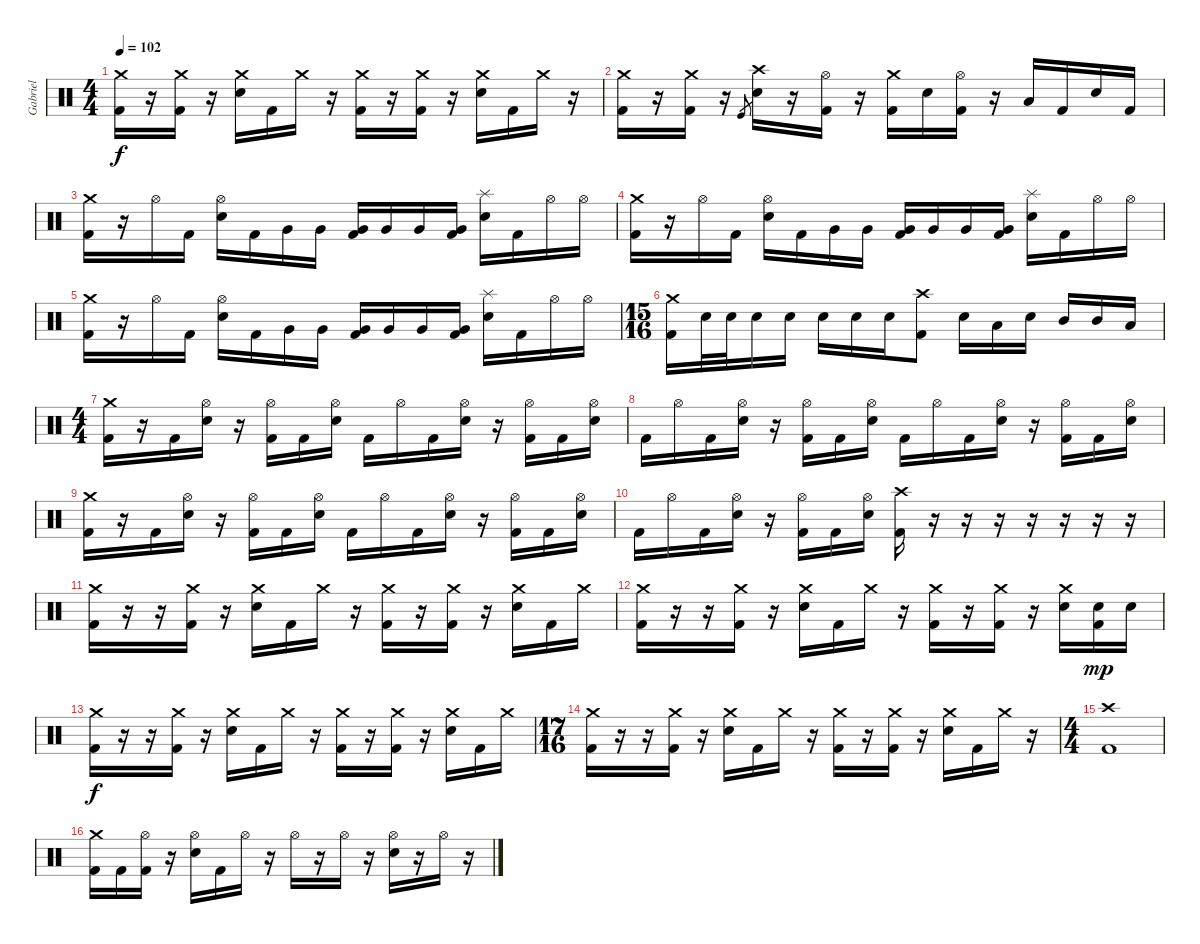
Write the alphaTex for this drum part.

\track ("Gabriel" "Gabriel") {instrument percussion}
\staff {score}
\articulation defaults
\ts (4 4)
\tempo 102
\clef neutral
\ks c
("Crash medium (hit)" "Kick (hit) 2").16{dy f} r.16 ("Crash medium (hit)" "Kick (hit) 2").16 r.16 ("Crash medium (hit)" "Electric Snare (hit)").16 "Kick (hit) 2".16 "Crash medium (hit)".16 r.16 ("Crash medium (hit)" "Kick (hit) 2").16 r.16 ("Crash medium (hit)" "Kick (hit) 2").16 r.16 ("Crash medium (hit)" "Electric Snare (hit)").16 "Kick (hit) 2".16 "Crash medium (hit)".16 r.16 |
("Crash medium (hit)" "Kick (hit) 2").16 r.16 ("Crash medium (hit)" "Kick (hit) 2").16 r.16 "Kick (hit)".8{gr} ("Crash high (hit)" "Electric Snare (hit)").16 r.16 ("Hi-Hat (open)" "Kick (hit) 2").16 r.16 ("Crash medium (hit)" "Kick (hit) 2").16 "Electric Snare (hit)".16 ("Hi-Hat (open)" "Kick (hit) 2").16 r.16 "Low Tom (hit)".16 "Kick (hit) 2".16 "Electric Snare (hit)".16 "Kick (hit) 2".16 |
("Crash medium (hit)" "Kick (hit) 2").16 r.16 "Hi-Hat (open)".16 "Kick (hit) 2".16 ("Hi-Hat (open)" "Electric Snare (hit)").16 "Kick (hit) 2".16 "Very Low Tom (hit)".16 "Very Low Tom (hit)".16 ("Very Low Tom (hit)" "Kick (hit) 2").16 "Very Low Tom (hit)".16 "Very Low Tom (hit)".16 ("Very Low Tom (hit)" "Kick (hit) 2").16 ("Splash (hit)" "Electric Snare (hit)").16 "Kick (hit) 2".16 "Hi-Hat (open)".16 "Hi-Hat (open)".16 |
("Crash medium (hit)" "Kick (hit) 2").16 r.16 "Hi-Hat (open)".16 "Kick (hit) 2".16 ("Hi-Hat (open)" "Electric Snare (hit)").16 "Kick (hit) 2".16 "Very Low Tom (hit)".16 "Very Low Tom (hit)".16 ("Very Low Tom (hit)" "Kick (hit) 2").16 "Very Low Tom (hit)".16 "Very Low Tom (hit)".16 ("Very Low Tom (hit)" "Kick (hit) 2").16 ("Splash (hit)" "Electric Snare (hit)").16 "Kick (hit) 2".16 "Hi-Hat (open)".16 "Hi-Hat (open)".16 |
("Crash medium (hit)" "Kick (hit) 2").16 r.16 "Hi-Hat (open)".16 "Kick (hit) 2".16 ("Hi-Hat (open)" "Electric Snare (hit)").16 "Kick (hit) 2".16 "Very Low Tom (hit)".16 "Very Low Tom (hit)".16 ("Very Low Tom (hit)" "Kick (hit) 2").16 "Very Low Tom (hit)".16 "Very Low Tom (hit)".16 ("Very Low Tom (hit)" "Kick (hit) 2").16 ("Splash (hit)" "Electric Snare (hit)").16 "Kick (hit) 2".16 "Hi-Hat (open)".16 "Hi-Hat (open)".16 |
\ts (15 16)
("Crash medium (hit)" "Kick (hit) 2").16 "Electric Snare (hit)".32 "Electric Snare (hit)".32 "Electric Snare (hit)".16 "Electric Snare (hit)".16 "Electric Snare (hit)".16 "Electric Snare (hit)".16 "Electric Snare (hit)".16 ("Crash high (hit)" "Kick (hit) 2").8 "Electric Snare (hit)".16 "Low Tom (hit)".16 "Electric Snare (hit)".16 "Mid Tom (hit)".16 "Mid Tom (hit)".16 "Low Tom (hit)".16 |
\ts (4 4)
("Crash medium (hit)" "Kick (hit) 2").16 r.16 "Kick (hit) 2".16 ("Hi-Hat (open)" "Electric Snare (hit)").16 r.16 ("Hi-Hat (open)" "Kick (hit) 2").16 "Kick (hit) 2".16 ("Hi-Hat (open)" "Electric Snare (hit)").16 "Kick (hit) 2".16 "Hi-Hat (open)".16 "Kick (hit) 2".16 ("Hi-Hat (open)" "Electric Snare (hit)").16 r.16 ("Hi-Hat (open)" "Kick (hit) 2").16 "Kick (hit) 2".16 ("Hi-Hat (open)" "Electric Snare (hit)").16 |
"Kick (hit) 2".16 "Hi-Hat (open)".16 "Kick (hit) 2".16 ("Hi-Hat (open)" "Electric Snare (hit)").16 r.16 ("Hi-Hat (open)" "Kick (hit) 2").16 "Kick (hit) 2".16 ("Hi-Hat (open)" "Electric Snare (hit)").16 "Kick (hit) 2".16 "Hi-Hat (open)".16 "Kick (hit) 2".16 ("Hi-Hat (open)" "Electric Snare (hit)").16 r.16 ("Hi-Hat (open)" "Kick (hit) 2").16 "Kick (hit) 2".16 ("Hi-Hat (open)" "Electric Snare (hit)").16 |
("Crash medium (hit)" "Kick (hit) 2").16 r.16 "Kick (hit) 2".16 ("Hi-Hat (open)" "Electric Snare (hit)").16 r.16 ("Hi-Hat (open)" "Kick (hit) 2").16 "Kick (hit) 2".16 ("Hi-Hat (open)" "Electric Snare (hit)").16 "Kick (hit) 2".16 "Hi-Hat (open)".16 "Kick (hit) 2".16 ("Hi-Hat (open)" "Electric Snare (hit)").16 r.16 ("Hi-Hat (open)" "Kick (hit) 2").16 "Kick (hit) 2".16 ("Hi-Hat (open)" "Electric Snare (hit)").16 |
"Kick (hit) 2".16 "Hi-Hat (open)".16 "Kick (hit) 2".16 ("Hi-Hat (open)" "Electric Snare (hit)").16 r.16 ("Hi-Hat (open)" "Kick (hit) 2").16 "Kick (hit) 2".16 ("Hi-Hat (open)" "Electric Snare (hit)").16 ("Crash high (hit)" "Kick (hit) 2").16 r.16 r.16 r.16 r.16 r.16 r.16 r.16 |
("Crash medium (hit)" "Kick (hit) 2").16 r.16 r.16 ("Crash medium (hit)" "Kick (hit) 2").16 r.16 ("Crash medium (hit)" "Electric Snare (hit)").16 "Kick (hit) 2".16 "Crash medium (hit)".16 r.16 ("Crash medium (hit)" "Kick (hit) 2").16 r.16 ("Crash medium (hit)" "Kick (hit) 2").16 r.16 ("Crash medium (hit)" "Electric Snare (hit)").16 "Kick (hit) 2".16 "Crash medium (hit)".16 |
("Crash medium (hit)" "Kick (hit) 2").16 r.16 r.16 ("Crash medium (hit)" "Kick (hit) 2").16 r.16 ("Crash medium (hit)" "Electric Snare (hit)").16 "Kick (hit) 2".16 "Crash medium (hit)".16 r.16 ("Crash medium (hit)" "Kick (hit) 2").16 r.16 ("Crash medium (hit)" "Kick (hit) 2").16 r.16 ("Crash medium (hit)" "Electric Snare (hit)").16 ("Electric Snare (hit)" "Kick (hit) 2").16{dy mp} "Electric Snare (hit)".16 |
("Crash medium (hit)" "Kick (hit) 2").16{dy f} r.16 r.16 ("Crash medium (hit)" "Kick (hit) 2").16 r.16 ("Crash medium (hit)" "Electric Snare (hit)").16 "Kick (hit) 2".16 "Crash medium (hit)".16 r.16 ("Crash medium (hit)" "Kick (hit) 2").16 r.16 ("Crash medium (hit)" "Kick (hit) 2").16 r.16 ("Crash medium (hit)" "Electric Snare (hit)").16 "Kick (hit) 2".16 "Crash medium (hit)".16 |
\ts (17 16)
("Crash medium (hit)" "Kick (hit) 2").16 r.16 r.16 ("Crash medium (hit)" "Kick (hit) 2").16 r.16 ("Crash medium (hit)" "Electric Snare (hit)").16 "Kick (hit) 2".16 "Crash medium (hit)".16 r.16 ("Crash medium (hit)" "Kick (hit) 2").16 r.16 ("Crash medium (hit)" "Kick (hit) 2").16 r.16 ("Crash medium (hit)" "Electric Snare (hit)").16 "Kick (hit) 2".16 "Crash medium (hit)".16 r.16 |
\ts (4 4)
("Crash high (hit)" "Kick (hit) 2").1 |
("Crash medium (hit)" "Kick (hit) 2").16 "Kick (hit) 2".16 ("Hi-Hat (open)" "Kick (hit) 2").16 r.16 ("Hi-Hat (open)" "Electric Snare (hit)").16 "Kick (hit) 2".16 "Hi-Hat (open)".16 r.16 "Hi-Hat (open)".16 r.16 "Hi-Hat (open)".16 r.16 ("Hi-Hat (open)" "Electric Snare (hit)").16 r.16 "Hi-Hat (open)".16 r.16
